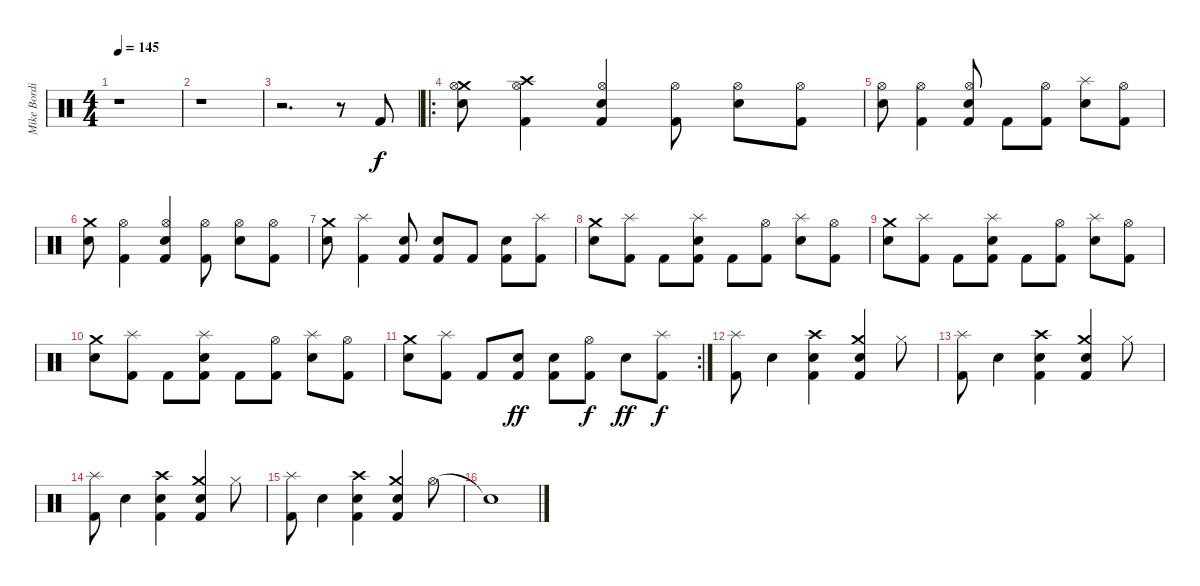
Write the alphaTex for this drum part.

\track ("Mike Bordin" "Mike Bordi") {instrument percussion}
\staff {score}
\articulation defaults
\ts (4 4)
\tempo 145
\clef neutral
\ks c
r.1{dy f} |
r.1 |
r.2{d} r.8 "Kick (hit) 2".8 |
\ro
("Crash medium (hit)" "Hi-Hat (open)" "Electric Snare (hit)").8 ("Crash high (hit)" "Hi-Hat (open)" "Kick (hit) 2").4 ("Hi-Hat (open)" "Electric Snare (hit)" "Kick (hit) 2").4 ("Hi-Hat (open)" "Kick (hit) 2").8 ("Hi-Hat (open)" "Electric Snare (hit)").8 ("Hi-Hat (open)" "Kick (hit) 2").8 |
("Hi-Hat (open)" "Electric Snare (hit)").8 ("Hi-Hat (open)" "Kick (hit) 2").4 ("Hi-Hat (open)" "Electric Snare (hit)" "Kick (hit) 2").8 "Kick (hit) 2".8 ("Hi-Hat (open)" "Kick (hit) 2").8 ("Splash (hit)" "Electric Snare (hit)").8 ("Hi-Hat (open)" "Kick (hit) 2").8 |
("Crash medium (hit)" "Electric Snare (hit)").8 ("Hi-Hat (open)" "Kick (hit) 2").4 ("Hi-Hat (open)" "Electric Snare (hit)" "Kick (hit) 2").4 ("Hi-Hat (open)" "Kick (hit) 2").8 ("Hi-Hat (open)" "Electric Snare (hit)").8 ("Hi-Hat (open)" "Kick (hit) 2").8 |
("Crash medium (hit)" "Electric Snare (hit)").8 ("Splash (hit)" "Kick (hit) 2").4 ("Electric Snare (hit)" "Kick (hit) 2").8 ("Electric Snare (hit)" "Kick (hit) 2").8 "Kick (hit) 2".8 ("Electric Snare (hit)" "Kick (hit) 2").8 ("Splash (hit)" "Kick (hit) 2").8 |
("Crash medium (hit)" "Electric Snare (hit)").8 ("Splash (hit)" "Kick (hit) 2").8 "Kick (hit) 2".8 ("Splash (hit)" "Electric Snare (hit)" "Kick (hit) 2").8 "Kick (hit) 2".8 ("Hi-Hat (open)" "Kick (hit) 2").8 ("Splash (hit)" "Electric Snare (hit)").8 ("Hi-Hat (open)" "Kick (hit) 2").8 |
("Crash medium (hit)" "Electric Snare (hit)").8 ("Splash (hit)" "Kick (hit) 2").8 "Kick (hit) 2".8 ("Splash (hit)" "Electric Snare (hit)" "Kick (hit) 2").8 "Kick (hit) 2".8 ("Hi-Hat (open)" "Kick (hit) 2").8 ("Splash (hit)" "Electric Snare (hit)").8 ("Hi-Hat (open)" "Kick (hit) 2").8 |
("Crash medium (hit)" "Electric Snare (hit)").8 ("Splash (hit)" "Kick (hit) 2").8 "Kick (hit) 2".8 ("Splash (hit)" "Electric Snare (hit)" "Kick (hit) 2").8 "Kick (hit) 2".8 ("Hi-Hat (open)" "Kick (hit) 2").8 ("Splash (hit)" "Electric Snare (hit)").8 ("Hi-Hat (open)" "Kick (hit) 2").8 |
\rc 2
("Crash medium (hit)" "Electric Snare (hit)").8 ("Splash (hit)" "Kick (hit) 2").8 "Kick (hit) 2".8 ("Electric Snare (hit)" "Kick (hit) 2").8{dy ff} ("Electric Snare (hit)" "Kick (hit) 2").8 ("Hi-Hat (open)" "Kick (hit) 2").8{dy f} "Electric Snare (hit)".8{dy ff} ("Splash (hit)" "Kick (hit) 2").8{dy f} |
("Splash (hit)" "Kick (hit) 2").8 "Electric Snare (hit)".4 ("Crash high (hit)" "Electric Snare (hit)" "Kick (hit) 2").4 ("Crash medium (hit)" "Electric Snare (hit)" "Kick (hit) 2").4 "Hi-Hat (closed)".8 |
("Splash (hit)" "Kick (hit) 2").8 "Electric Snare (hit)".4 ("Crash high (hit)" "Electric Snare (hit)" "Kick (hit) 2").4 ("Crash medium (hit)" "Electric Snare (hit)" "Kick (hit) 2").4 "Hi-Hat (closed)".8 |
("Splash (hit)" "Kick (hit) 2").8 "Electric Snare (hit)".4 ("Crash high (hit)" "Electric Snare (hit)" "Kick (hit) 2").4 ("Crash medium (hit)" "Electric Snare (hit)" "Kick (hit) 2").4 "Hi-Hat (closed)".8 |
("Splash (hit)" "Kick (hit) 2").8 "Electric Snare (hit)".4 ("Crash high (hit)" "Electric Snare (hit)" "Kick (hit) 2").4 ("Crash medium (hit)" "Electric Snare (hit)" "Kick (hit) 2").4 "Hi-Hat (open)".8 |
"Snare (hit)"{t}.1
